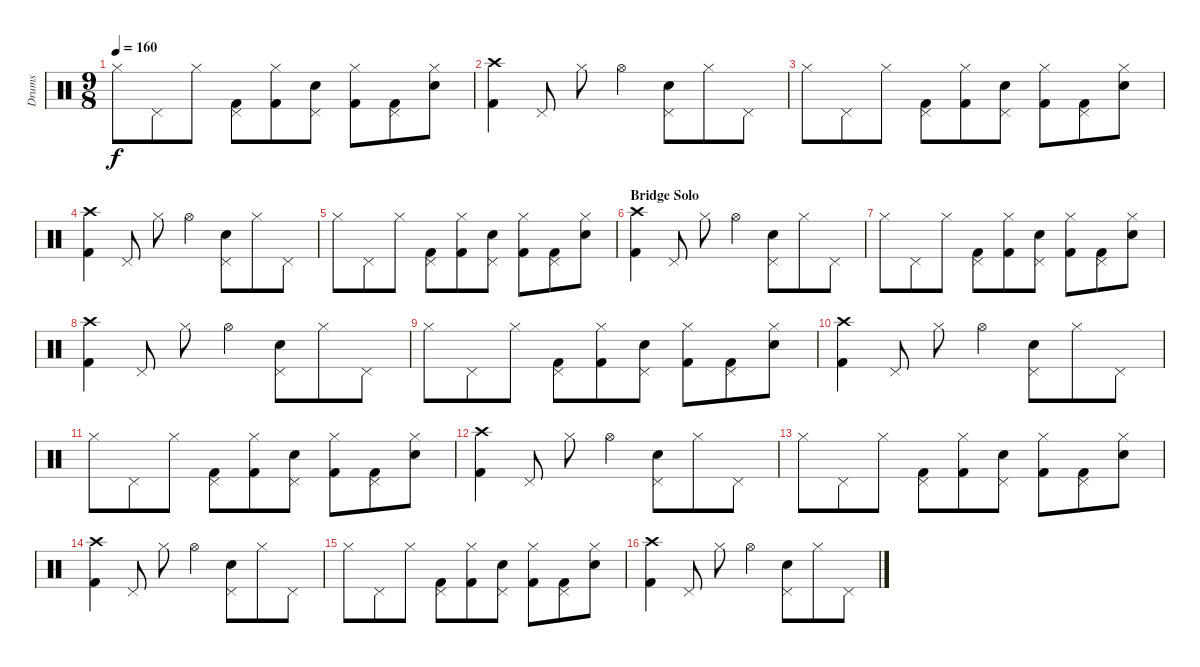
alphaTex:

\track ("Drums" "Drums") {instrument percussion}
\staff {score}
\articulation defaults
\ts (9 8)
\tempo 160
\clef neutral
\ks c "Hi-Hat (closed)".8{dy f} "Pedal Hi-Hat (hit)".8 "Hi-Hat (closed)".8
("Pedal Hi-Hat (hit)" "Kick (hit) 2").8 ("Hi-Hat (closed)" "Kick (hit) 2").8 ("Pedal Hi-Hat (hit)" "Electric Snare (hit)").8 ("Hi-Hat (closed)" "Kick (hit) 2").8 ("Pedal Hi-Hat (hit)" "Kick (hit) 2").8 ("Hi-Hat (closed)" "Electric Snare (hit)").8 |
("Crash high (hit)" "Kick (hit) 2").4 "Pedal Hi-Hat (hit)".8 "Hi-Hat (closed)".8 "Hi-Hat (open)".4 ("Pedal Hi-Hat (hit)" "Electric Snare (hit)").8 "Hi-Hat (closed)".8 "Pedal Hi-Hat (hit)".8 |
"Hi-Hat (closed)".8 "Pedal Hi-Hat (hit)".8 "Hi-Hat (closed)".8 ("Pedal Hi-Hat (hit)" "Kick (hit) 2").8 ("Hi-Hat (closed)" "Kick (hit) 2").8 ("Pedal Hi-Hat (hit)" "Electric Snare (hit)").8 ("Hi-Hat (closed)" "Kick (hit) 2").8 ("Pedal Hi-Hat (hit)" "Kick (hit) 2").8 ("Hi-Hat (closed)" "Electric Snare (hit)").8 |
("Crash high (hit)" "Kick (hit) 2").4 "Pedal Hi-Hat (hit)".8 "Hi-Hat (closed)".8 "Hi-Hat (open)".4 ("Pedal Hi-Hat (hit)" "Electric Snare (hit)").8 "Hi-Hat (closed)".8 "Pedal Hi-Hat (hit)".8 |
"Hi-Hat (closed)".8 "Pedal Hi-Hat (hit)".8 "Hi-Hat (closed)".8 ("Pedal Hi-Hat (hit)" "Kick (hit) 2").8 ("Hi-Hat (closed)" "Kick (hit) 2").8 ("Pedal Hi-Hat (hit)" "Electric Snare (hit)").8 ("Hi-Hat (closed)" "Kick (hit) 2").8 ("Pedal Hi-Hat (hit)" "Kick (hit) 2").8 ("Hi-Hat (closed)" "Electric Snare (hit)").8 |
\section ("" "Bridge Solo")
("Crash high (hit)" "Kick (hit) 2").4 "Pedal Hi-Hat (hit)".8 "Hi-Hat (closed)".8 "Hi-Hat (open)".4 ("Pedal Hi-Hat (hit)" "Electric Snare (hit)").8 "Hi-Hat (closed)".8 "Pedal Hi-Hat (hit)".8 |
"Hi-Hat (closed)".8 "Pedal Hi-Hat (hit)".8 "Hi-Hat (closed)".8 ("Pedal Hi-Hat (hit)" "Kick (hit) 2").8 ("Hi-Hat (closed)" "Kick (hit) 2").8 ("Pedal Hi-Hat (hit)" "Electric Snare (hit)").8 ("Hi-Hat (closed)" "Kick (hit) 2").8 ("Pedal Hi-Hat (hit)" "Kick (hit) 2").8 ("Hi-Hat (closed)" "Electric Snare (hit)").8 |
("Crash high (hit)" "Kick (hit) 2").4 "Pedal Hi-Hat (hit)".8 "Hi-Hat (closed)".8 "Hi-Hat (open)".4 ("Pedal Hi-Hat (hit)" "Electric Snare (hit)").8 "Hi-Hat (closed)".8 "Pedal Hi-Hat (hit)".8 |
"Hi-Hat (closed)".8 "Pedal Hi-Hat (hit)".8 "Hi-Hat (closed)".8 ("Pedal Hi-Hat (hit)" "Kick (hit) 2").8 ("Hi-Hat (closed)" "Kick (hit) 2").8 ("Pedal Hi-Hat (hit)" "Electric Snare (hit)").8 ("Hi-Hat (closed)" "Kick (hit) 2").8 ("Pedal Hi-Hat (hit)" "Kick (hit) 2").8 ("Hi-Hat (closed)" "Electric Snare (hit)").8 |
("Crash high (hit)" "Kick (hit) 2").4 "Pedal Hi-Hat (hit)".8 "Hi-Hat (closed)".8 "Hi-Hat (open)".4 ("Pedal Hi-Hat (hit)" "Electric Snare (hit)").8 "Hi-Hat (closed)".8 "Pedal Hi-Hat (hit)".8 |
"Hi-Hat (closed)".8 "Pedal Hi-Hat (hit)".8 "Hi-Hat (closed)".8 ("Pedal Hi-Hat (hit)" "Kick (hit) 2").8 ("Hi-Hat (closed)" "Kick (hit) 2").8 ("Pedal Hi-Hat (hit)" "Electric Snare (hit)").8 ("Hi-Hat (closed)" "Kick (hit) 2").8 ("Pedal Hi-Hat (hit)" "Kick (hit) 2").8 ("Hi-Hat (closed)" "Electric Snare (hit)").8 |
("Crash high (hit)" "Kick (hit) 2").4 "Pedal Hi-Hat (hit)".8 "Hi-Hat (closed)".8 "Hi-Hat (open)".4 ("Pedal Hi-Hat (hit)" "Electric Snare (hit)").8 "Hi-Hat (closed)".8 "Pedal Hi-Hat (hit)".8 |
"Hi-Hat (closed)".8 "Pedal Hi-Hat (hit)".8 "Hi-Hat (closed)".8 ("Pedal Hi-Hat (hit)" "Kick (hit) 2").8 ("Hi-Hat (closed)" "Kick (hit) 2").8 ("Pedal Hi-Hat (hit)" "Electric Snare (hit)").8 ("Hi-Hat (closed)" "Kick (hit) 2").8 ("Pedal Hi-Hat (hit)" "Kick (hit) 2").8 ("Hi-Hat (closed)" "Electric Snare (hit)").8 |
("Crash high (hit)" "Kick (hit) 2").4 "Pedal Hi-Hat (hit)".8 "Hi-Hat (closed)".8 "Hi-Hat (open)".4 ("Pedal Hi-Hat (hit)" "Electric Snare (hit)").8 "Hi-Hat (closed)".8 "Pedal Hi-Hat (hit)".8 |
"Hi-Hat (closed)".8 "Pedal Hi-Hat (hit)".8 "Hi-Hat (closed)".8 ("Pedal Hi-Hat (hit)" "Kick (hit) 2").8 ("Hi-Hat (closed)" "Kick (hit) 2").8 ("Pedal Hi-Hat (hit)" "Electric Snare (hit)").8 ("Hi-Hat (closed)" "Kick (hit) 2").8 ("Pedal Hi-Hat (hit)" "Kick (hit) 2").8 ("Hi-Hat (closed)" "Electric Snare (hit)").8 |
("Crash high (hit)" "Kick (hit) 2").4 "Pedal Hi-Hat (hit)".8 "Hi-Hat (closed)".8 "Hi-Hat (open)".4 ("Pedal Hi-Hat (hit)" "Electric Snare (hit)").8 "Hi-Hat (closed)".8 "Pedal Hi-Hat (hit)".8
